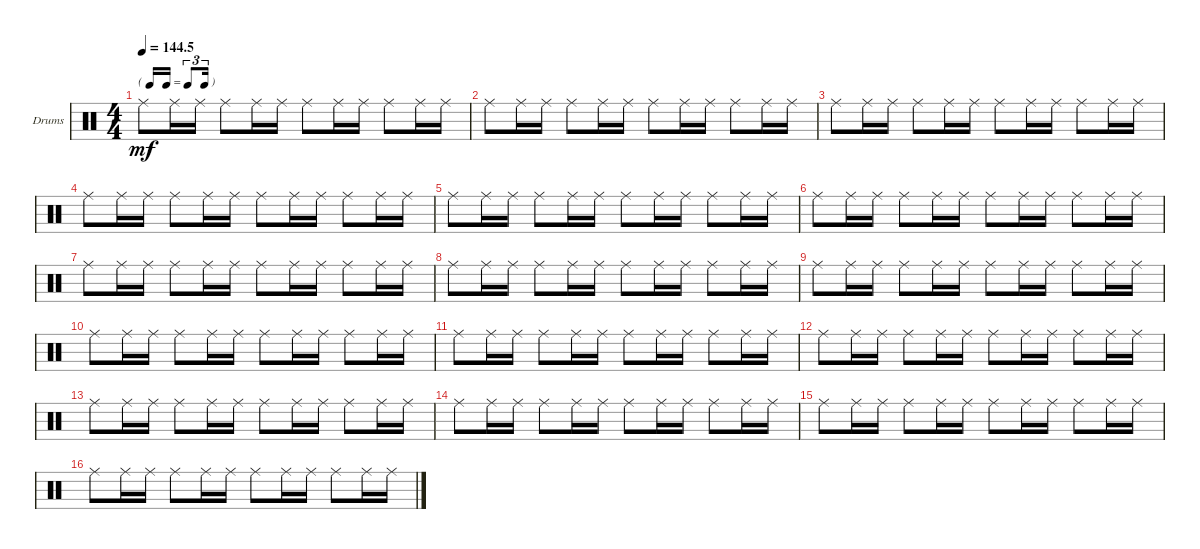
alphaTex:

\defaultSystemsLayout 4
\bracketExtendMode groupsimilarinstruments
\firstSystemTrackNameOrientation horizontal
\otherSystemsTrackNameOrientation horizontal
\track ("Drumkit" "Drums") {instrument percussion}
\staff {score}
\articulation defaults
\ts (4 4)
\tf triplet16th
\tempo
144.5
\accidentals auto
\clef neutral
\ottava regular
\simile none
\scale
0.5
\ks c "Ride (middle)".8{dy mf} "Ride (middle)".16 "Ride (middle)".16 "Ride (middle)".8 "Ride (middle)".16 "Ride (middle)".16 "Ride (middle)".8 "Ride (middle)".16 "Ride (middle)".16 "Ride (middle)".8 "Ride (middle)".16 "Ride (middle)".16
|
\scale
0.5 "Ride (middle)".8 "Ride (middle)".16 "Ride (middle)".16 "Ride (middle)".8 "Ride (middle)".16 "Ride (middle)".16 "Ride (middle)".8 "Ride (middle)".16 "Ride (middle)".16 "Ride (middle)".8 "Ride (middle)".16 "Ride (middle)".16 |
\scale
0.5 "Ride (middle)".8 "Ride (middle)".16 "Ride (middle)".16 "Ride (middle)".8 "Ride (middle)".16 "Ride (middle)".16 "Ride (middle)".8 "Ride (middle)".16 "Ride (middle)".16 "Ride (middle)".8 "Ride (middle)".16 "Ride (middle)".16 |
\scale
0.5 "Ride (middle)".8 "Ride (middle)".16 "Ride (middle)".16 "Ride (middle)".8 "Ride (middle)".16 "Ride (middle)".16 "Ride (middle)".8 "Ride (middle)".16 "Ride (middle)".16 "Ride (middle)".8 "Ride (middle)".16 "Ride (middle)".16 |
\scale
0.5 "Ride (middle)".8 "Ride (middle)".16 "Ride (middle)".16 "Ride (middle)".8 "Ride (middle)".16 "Ride (middle)".16 "Ride (middle)".8 "Ride (middle)".16 "Ride (middle)".16 "Ride (middle)".8 "Ride (middle)".16 "Ride (middle)".16 |
\scale
0.5 "Ride (middle)".8 "Ride (middle)".16 "Ride (middle)".16 "Ride (middle)".8 "Ride (middle)".16 "Ride (middle)".16 "Ride (middle)".8 "Ride (middle)".16 "Ride (middle)".16 "Ride (middle)".8 "Ride (middle)".16 "Ride (middle)".16 |
\scale
0.5 "Ride (middle)".8 "Ride (middle)".16 "Ride (middle)".16 "Ride (middle)".8 "Ride (middle)".16 "Ride (middle)".16 "Ride (middle)".8 "Ride (middle)".16 "Ride (middle)".16 "Ride (middle)".8 "Ride (middle)".16 "Ride (middle)".16 |
\scale
0.5 "Ride (middle)".8 "Ride (middle)".16 "Ride (middle)".16 "Ride (middle)".8 "Ride (middle)".16 "Ride (middle)".16 "Ride (middle)".8 "Ride (middle)".16 "Ride (middle)".16 "Ride (middle)".8 "Ride (middle)".16 "Ride (middle)".16 |
\scale
0.5 "Ride (middle)".8 "Ride (middle)".16 "Ride (middle)".16 "Ride (middle)".8 "Ride (middle)".16 "Ride (middle)".16 "Ride (middle)".8 "Ride (middle)".16 "Ride (middle)".16 "Ride (middle)".8 "Ride (middle)".16 "Ride (middle)".16 |
\scale
0.5 "Ride (middle)".8 "Ride (middle)".16 "Ride (middle)".16 "Ride (middle)".8 "Ride (middle)".16 "Ride (middle)".16 "Ride (middle)".8 "Ride (middle)".16 "Ride (middle)".16 "Ride (middle)".8 "Ride (middle)".16 "Ride (middle)".16 |
\scale
0.5 "Ride (middle)".8 "Ride (middle)".16 "Ride (middle)".16 "Ride (middle)".8 "Ride (middle)".16 "Ride (middle)".16 "Ride (middle)".8 "Ride (middle)".16 "Ride (middle)".16 "Ride (middle)".8 "Ride (middle)".16 "Ride (middle)".16 |
\scale
0.5 "Ride (middle)".8 "Ride (middle)".16 "Ride (middle)".16 "Ride (middle)".8 "Ride (middle)".16 "Ride (middle)".16 "Ride (middle)".8 "Ride (middle)".16 "Ride (middle)".16 "Ride (middle)".8 "Ride (middle)".16 "Ride (middle)".16 |
\scale
0.5 "Ride (middle)".8 "Ride (middle)".16 "Ride (middle)".16 "Ride (middle)".8 "Ride (middle)".16 "Ride (middle)".16 "Ride (middle)".8 "Ride (middle)".16 "Ride (middle)".16 "Ride (middle)".8 "Ride (middle)".16 "Ride (middle)".16 |
\scale
0.5 "Ride (middle)".8 "Ride (middle)".16 "Ride (middle)".16 "Ride (middle)".8 "Ride (middle)".16 "Ride (middle)".16 "Ride (middle)".8 "Ride (middle)".16 "Ride (middle)".16 "Ride (middle)".8 "Ride (middle)".16 "Ride (middle)".16 |
\scale
0.5 "Ride (middle)".8 "Ride (middle)".16 "Ride (middle)".16 "Ride (middle)".8 "Ride (middle)".16 "Ride (middle)".16 "Ride (middle)".8 "Ride (middle)".16 "Ride (middle)".16 "Ride (middle)".8 "Ride (middle)".16 "Ride (middle)".16 |
\scale
0.5 "Ride (middle)".8 "Ride (middle)".16 "Ride (middle)".16 "Ride (middle)".8 "Ride (middle)".16 "Ride (middle)".16 "Ride (middle)".8 "Ride (middle)".16 "Ride (middle)".16 "Ride (middle)".8 "Ride (middle)".16 "Ride (middle)".16
